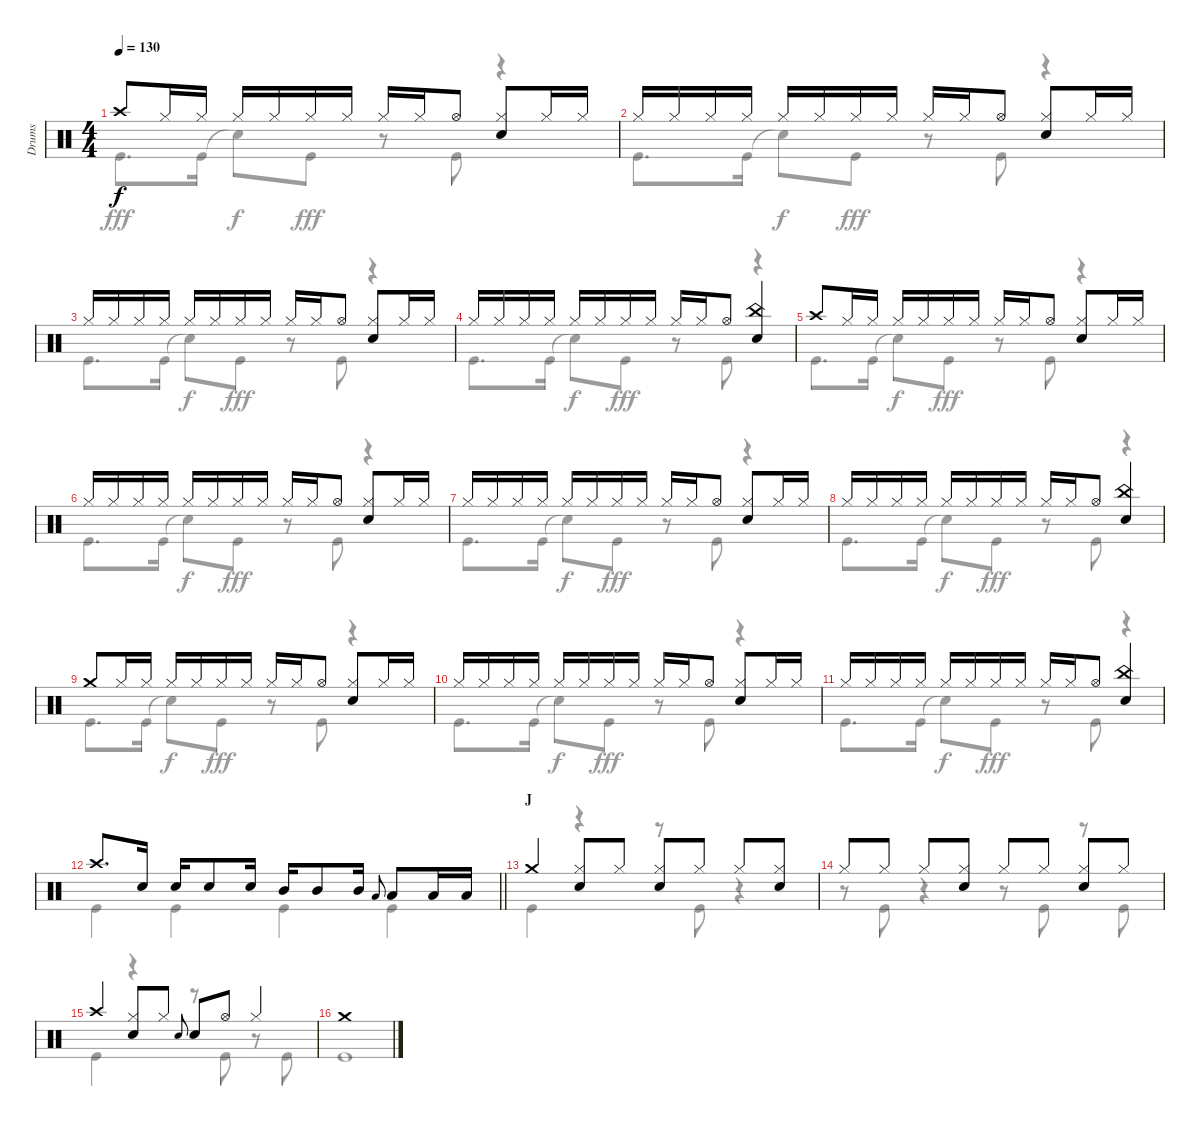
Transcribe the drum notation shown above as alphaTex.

\track ("Drums" "Drums") {instrument percussion}
\staff {score}
\articulation defaults
\voice
\ts (4 4)
\tempo 130
\clef neutral
\ks c "Crash high (hit)".8{dy f} "Hi-Hat (closed)".16 "Hi-Hat (closed)".16 "Hi-Hat (closed)".16 "Hi-Hat (closed)".16 "Hi-Hat (closed)".16 "Hi-Hat (closed)".16 "Hi-Hat (closed)".16 "Hi-Hat (closed)".16 "Hi-Hat (open)".8
("Hi-Hat (closed)" "Snare (hit) 2").8 "Hi-Hat (closed)".16 "Hi-Hat (closed)".16 |
"Hi-Hat (closed)".16 "Hi-Hat (closed)".16 "Hi-Hat (closed)".16 "Hi-Hat (closed)".16 "Hi-Hat (closed)".16 "Hi-Hat (closed)".16 "Hi-Hat (closed)".16 "Hi-Hat (closed)".16 "Hi-Hat (closed)".16 "Hi-Hat (closed)".16 "Hi-Hat (open)".8 ("Hi-Hat (closed)" "Snare (hit) 2").8 "Hi-Hat (closed)".16 "Hi-Hat (closed)".16 |
"Hi-Hat (closed)".16 "Hi-Hat (closed)".16 "Hi-Hat (closed)".16 "Hi-Hat (closed)".16 "Hi-Hat (closed)".16 "Hi-Hat (closed)".16 "Hi-Hat (closed)".16 "Hi-Hat (closed)".16 "Hi-Hat (closed)".16 "Hi-Hat (closed)".16 "Hi-Hat (open)".8 ("Hi-Hat (closed)" "Snare (hit) 2").8 "Hi-Hat (closed)".16 "Hi-Hat (closed)".16 |
"Hi-Hat (closed)".16 "Hi-Hat (closed)".16 "Hi-Hat (closed)".16 "Hi-Hat (closed)".16 "Hi-Hat (closed)".16 "Hi-Hat (closed)".16 "Hi-Hat (closed)".16 "Hi-Hat (closed)".16 "Hi-Hat (closed)".16 "Hi-Hat (closed)".16 "Hi-Hat (open)".8 ("China (hit)" "Snare (hit) 2").4 |
"Crash high (hit)".8 "Hi-Hat (closed)".16 "Hi-Hat (closed)".16 "Hi-Hat (closed)".16 "Hi-Hat (closed)".16 "Hi-Hat (closed)".16 "Hi-Hat (closed)".16 "Hi-Hat (closed)".16 "Hi-Hat (closed)".16 "Hi-Hat (open)".8 ("Hi-Hat (closed)" "Snare (hit) 2").8 "Hi-Hat (closed)".16 "Hi-Hat (closed)".16 |
"Hi-Hat (closed)".16 "Hi-Hat (closed)".16 "Hi-Hat (closed)".16 "Hi-Hat (closed)".16 "Hi-Hat (closed)".16 "Hi-Hat (closed)".16 "Hi-Hat (closed)".16 "Hi-Hat (closed)".16 "Hi-Hat (closed)".16 "Hi-Hat (closed)".16 "Hi-Hat (open)".8 ("Hi-Hat (closed)" "Snare (hit) 2").8 "Hi-Hat (closed)".16 "Hi-Hat (closed)".16 |
"Hi-Hat (closed)".16 "Hi-Hat (closed)".16 "Hi-Hat (closed)".16 "Hi-Hat (closed)".16 "Hi-Hat (closed)".16 "Hi-Hat (closed)".16 "Hi-Hat (closed)".16 "Hi-Hat (closed)".16 "Hi-Hat (closed)".16 "Hi-Hat (closed)".16 "Hi-Hat (open)".8 ("Hi-Hat (closed)" "Snare (hit) 2").8 "Hi-Hat (closed)".16 "Hi-Hat (closed)".16 |
"Hi-Hat (closed)".16 "Hi-Hat (closed)".16 "Hi-Hat (closed)".16 "Hi-Hat (closed)".16 "Hi-Hat (closed)".16 "Hi-Hat (closed)".16 "Hi-Hat (closed)".16 "Hi-Hat (closed)".16 "Hi-Hat (closed)".16 "Hi-Hat (closed)".16 "Hi-Hat (open)".8 ("China (hit)" "Snare (hit) 2").4 |
"Crash medium (hit)".8 "Hi-Hat (closed)".16 "Hi-Hat (closed)".16 "Hi-Hat (closed)".16 "Hi-Hat (closed)".16 "Hi-Hat (closed)".16 "Hi-Hat (closed)".16 "Hi-Hat (closed)".16 "Hi-Hat (closed)".16 "Hi-Hat (open)".8 ("Hi-Hat (closed)" "Snare (hit) 2").8 "Hi-Hat (closed)".16 "Hi-Hat (closed)".16 |
"Hi-Hat (closed)".16 "Hi-Hat (closed)".16 "Hi-Hat (closed)".16 "Hi-Hat (closed)".16 "Hi-Hat (closed)".16 "Hi-Hat (closed)".16 "Hi-Hat (closed)".16 "Hi-Hat (closed)".16 "Hi-Hat (closed)".16 "Hi-Hat (closed)".16 "Hi-Hat (open)".8 ("Hi-Hat (closed)" "Snare (hit) 2").8 "Hi-Hat (closed)".16 "Hi-Hat (closed)".16 |
"Hi-Hat (closed)".16 "Hi-Hat (closed)".16 "Hi-Hat (closed)".16 "Hi-Hat (closed)".16 "Hi-Hat (closed)".16 "Hi-Hat (closed)".16 "Hi-Hat (closed)".16 "Hi-Hat (closed)".16 "Hi-Hat (closed)".16 "Hi-Hat (closed)".16 "Hi-Hat (open)".8 ("China (hit)" "Snare (hit) 2").4 |
\barLineRight lightlight "Crash high (hit)".8{d} "Snare (hit) 2".16 "Snare (hit) 2".16 "Snare (hit) 2".8 "Snare (hit) 2".16 "Mid Tom (hit)".16 "Mid Tom (hit)".8 "Mid Tom (hit)".16 "Low Tom (hit)".8{gr onbeat} "Low Tom (hit)".8 "Low Tom (hit)".16 "Low Tom (hit)".16
|
\section ("" "J")
"Crash medium (hit)".4 ("Hi-Hat (closed)" "Snare (hit) 2").8 "Hi-Hat (closed)".8 ("Hi-Hat (closed)" "Snare (hit) 2").8 "Hi-Hat (closed)".8 "Hi-Hat (closed)".8 ("Hi-Hat (closed)" "Snare (hit) 2").8 |
"Hi-Hat (closed)".8 "Hi-Hat (closed)".8 "Hi-Hat (closed)".8 ("Hi-Hat (closed)" "Snare (hit) 2").8 "Hi-Hat (closed)".8 "Hi-Hat (closed)".8 ("Hi-Hat (closed)" "Snare (hit) 2").8 "Hi-Hat (closed)".8 |
"Crash high (hit)".4 ("Hi-Hat (closed)" "Snare (hit) 2").8 "Hi-Hat (closed)".8 "Snare (hit) 2".8{gr onbeat} "Snare (hit) 2".8 "Hi-Hat (open)".8 "Hi-Hat (closed)".4 |
"Crash medium (hit)".1
\voice
\clef neutral
\ottava regular
\simile none
\ks c "Kick (hit)".8{d dy fff} "Kick (hit)".16 "Snare (hit)"{t}.8{dy f} "Kick (hit)".8{dy fff}
r.8 "Kick (hit)".8 r.4 |
"Kick (hit)".8{d} "Kick (hit)".16 "Snare (hit)"{t}.8{dy f} "Kick (hit)".8{dy fff} r.8 "Kick (hit)".8 r.4 |
"Kick (hit)".8{d} "Kick (hit)".16 "Snare (hit)"{t}.8{dy f} "Kick (hit)".8{dy fff} r.8 "Kick (hit)".8 r.4 |
"Kick (hit)".8{d} "Kick (hit)".16 "Snare (hit)"{t}.8{dy f} "Kick (hit)".8{dy fff} r.8 "Kick (hit)".8 r.4 |
"Kick (hit)".8{d} "Kick (hit)".16 "Snare (hit)"{t}.8{dy f} "Kick (hit)".8{dy fff} r.8 "Kick (hit)".8 r.4 |
"Kick (hit)".8{d} "Kick (hit)".16 "Snare (hit)"{t}.8{dy f} "Kick (hit)".8{dy fff} r.8 "Kick (hit)".8 r.4 |
"Kick (hit)".8{d} "Kick (hit)".16 "Snare (hit)"{t}.8{dy f} "Kick (hit)".8{dy fff} r.8 "Kick (hit)".8 r.4 |
"Kick (hit)".8{d} "Kick (hit)".16 "Snare (hit)"{t}.8{dy f} "Kick (hit)".8{dy fff} r.8 "Kick (hit)".8 r.4 |
"Kick (hit)".8{d} "Kick (hit)".16 "Snare (hit)"{t}.8{dy f} "Kick (hit)".8{dy fff} r.8 "Kick (hit)".8 r.4 |
"Kick (hit)".8{d} "Kick (hit)".16 "Snare (hit)"{t}.8{dy f} "Kick (hit)".8{dy fff} r.8 "Kick (hit)".8 r.4 |
"Kick (hit)".8{d} "Kick (hit)".16 "Snare (hit)"{t}.8{dy f} "Kick (hit)".8{dy fff} r.8 "Kick (hit)".8 r.4 |
\barLineRight lightlight "Kick (hit)".4 "Kick (hit)".4 "Kick (hit)".4 "Kick (hit)".4
|
"Kick (hit)".4 r.4 r.8 "Kick (hit)".8 r.4 |
r.8 "Kick (hit)".8 r.4 r.8 "Kick (hit)".8 r.8 "Kick (hit)".8 |
"Kick (hit)".4 r.4 r.8 "Kick (hit)".8 r.8 "Kick (hit)".8 |
"Kick (hit)".1
